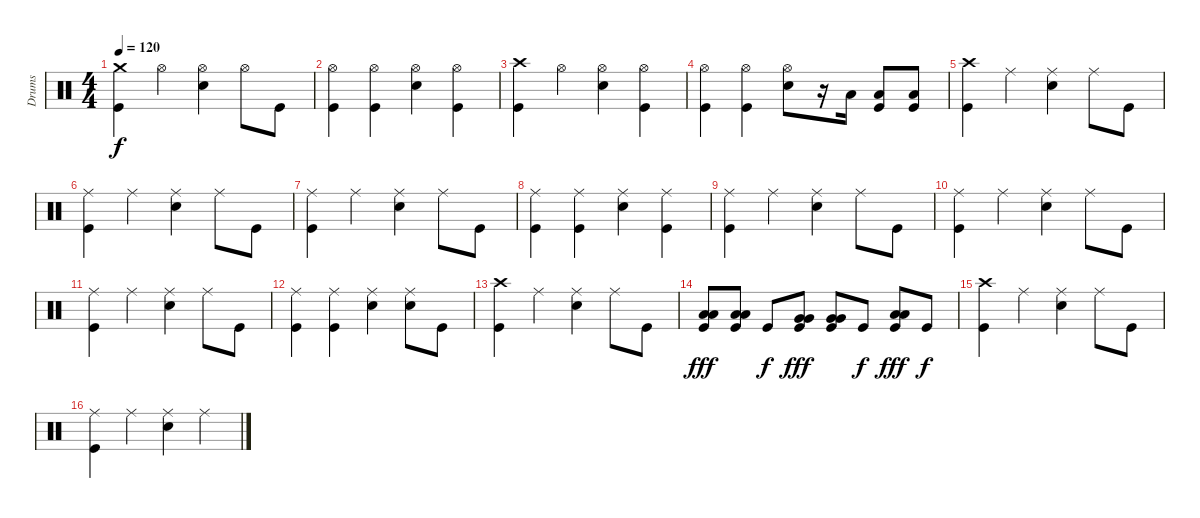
\track ("Drums" "Drums") {instrument percussion}
\staff {score}
\articulation defaults
\ts (4 4)
\tempo 120
\clef neutral
\ks c
("Crash medium (hit)" "Kick (hit)").4{dy f} "Hi-Hat (open)".4 ("Hi-Hat (open)" "Snare (hit) 2").4 "Hi-Hat (open)".8 "Kick (hit)".8 |
("Hi-Hat (open)" "Kick (hit)").4 ("Hi-Hat (open)" "Kick (hit)").4 ("Hi-Hat (open)" "Snare (hit) 2").4 ("Hi-Hat (open)" "Kick (hit)").4 |
("Crash high (hit)" "Kick (hit)").4 "Hi-Hat (open)".4 ("Hi-Hat (open)" "Snare (hit) 2").4 ("Hi-Hat (open)" "Kick (hit)").4 |
("Hi-Hat (open)" "Kick (hit)").4 ("Hi-Hat (open)" "Kick (hit)").4 ("Hi-Hat (open)" "Snare (hit) 2").8 r.16 "Low Floor Tom (hit)".16 ("Low Floor Tom (hit)" "Kick (hit)").8 ("Low Tom (hit)" "Kick (hit)").8 |
("Crash high (hit)" "Kick (hit)").4 "Ride (middle)".4 ("Ride (middle)" "Snare (hit) 2").4 "Ride (middle)".8 "Kick (hit)".8 |
("Ride (middle)" "Kick (hit)").4 "Ride (middle)".4 ("Ride (middle)" "Snare (hit) 2").4 "Ride (middle)".8 "Kick (hit)".8 |
("Ride (middle)" "Kick (hit)").4 "Ride (middle)".4 ("Ride (middle)" "Snare (hit) 2").4 "Ride (middle)".8 "Kick (hit)".8 |
("Ride (middle)" "Kick (hit)").4 ("Ride (middle)" "Kick (hit)").4 ("Ride (middle)" "Snare (hit) 2").4 ("Ride (middle)" "Kick (hit)").4 |
("Ride (middle)" "Kick (hit)").4 "Ride (middle)".4 ("Ride (middle)" "Snare (hit) 2").4 "Ride (middle)".8 "Kick (hit)".8 |
("Ride (middle)" "Kick (hit)").4 "Ride (middle)".4 ("Ride (middle)" "Snare (hit) 2").4 "Ride (middle)".8 "Kick (hit)".8 |
("Ride (middle)" "Kick (hit)").4 "Ride (middle)".4 ("Ride (middle)" "Snare (hit) 2").4 "Ride (middle)".8 "Kick (hit)".8 |
("Ride (middle)" "Kick (hit)").4 ("Ride (middle)" "Kick (hit)").4 ("Ride (middle)" "Snare (hit) 2").4 ("Ride (middle)" "Snare (hit) 2").8 "Kick (hit)".8 |
("Crash high (hit)" "Kick (hit)").4 "Ride (middle)".4 ("Ride (middle)" "Snare (hit) 2").4 "Ride (middle)".8 "Kick (hit)".8 |
("Low Tom (hit)" "Kick (hit)" "Low Tom (hit)").8{dy fff} ("Low Tom (hit)" "Kick (hit)" "Low Tom (hit)").8 "Kick (hit)".8{dy f} ("Very Low Tom (hit)" "Kick (hit)" "Very Low Tom (hit)").8{dy fff} ("Very Low Tom (hit)" "Kick (hit)" "Very Low Tom (hit)").8 "Kick (hit)".8{dy f} ("Low Floor Tom (hit)" "Kick (hit)" "Low Floor Tom (hit)").8{dy fff} "Kick (hit)".8{dy f} |
("Crash high (hit)" "Kick (hit)").4 "Ride (middle)".4 ("Ride (middle)" "Snare (hit) 2").4 "Ride (middle)".8 "Kick (hit)".8 |
("Ride (middle)" "Kick (hit)").4 "Ride (middle)".4 ("Ride (middle)" "Snare (hit) 2").4 "Ride (middle)".4
